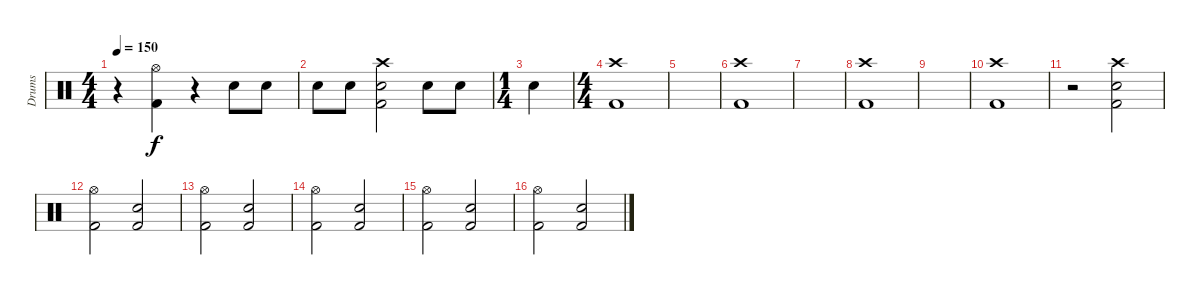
\track ("Drums" "Drums") {instrument percussion}
\staff {score}
\articulation defaults
\ts (4 4)
\tempo 150
\clef neutral
\ks c
r.4{dy f} ("Hi-Hat (open)" "Kick (hit) 2").4 r.4 "Electric Snare (hit)".8 "Electric Snare (hit)".8 |
"Electric Snare (hit)".8 "Electric Snare (hit)".8 ("Crash high (hit)" "Electric Snare (hit)" "Kick (hit) 2").2 "Electric Snare (hit)".8 "Electric Snare (hit)".8 |
\ts (1 4)
"Snare (hit) 2".4 |
\ts (4 4)
("Crash high (hit)" "Kick (hit) 2").1 |
|
("Crash high (hit)" "Kick (hit) 2").1 |
|
("Crash high (hit)" "Kick (hit) 2").1 |
|
("Crash high (hit)" "Kick (hit) 2").1 |
r.2 ("Crash high (hit)" "Electric Snare (hit)" "Kick (hit) 2").2{volume 13} |
("Hi-Hat (open)" "Kick (hit) 2").2 ("Electric Snare (hit)" "Kick (hit) 2").2 |
("Hi-Hat (open)" "Kick (hit) 2").2 ("Electric Snare (hit)" "Kick (hit) 2").2 |
("Hi-Hat (open)" "Kick (hit) 2").2 ("Electric Snare (hit)" "Kick (hit) 2").2 |
("Hi-Hat (open)" "Kick (hit) 2").2 ("Electric Snare (hit)" "Kick (hit) 2").2 |
("Hi-Hat (open)" "Kick (hit) 2").2 ("Electric Snare (hit)" "Kick (hit) 2").2
